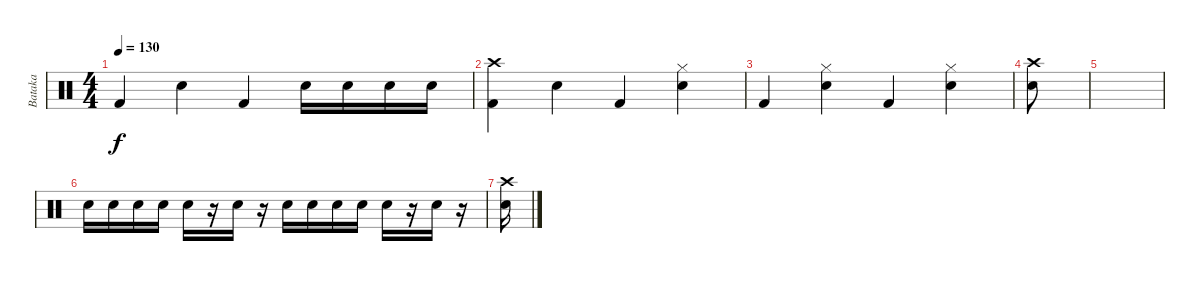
\track ("Bataka" "Bataka") {instrument percussion}
\staff {score}
\articulation defaults
\ts (4 4)
\tempo 130
\clef neutral
\ks c "Kick (hit) 2".4{dy f} "Snare (hit) 2".4 "Kick (hit) 2".4 "Snare (hit) 2".16 "Snare (hit) 2".16 "Snare (hit) 2".16 "Snare (hit) 2".16
|
("Crash high (hit)" "Kick (hit) 2").4 "Snare (hit) 2".4 "Kick (hit) 2".4 ("Hi-Hat (closed)" "Snare (hit) 2").4 |
"Kick (hit) 2".4 ("Hi-Hat (closed)" "Snare (hit) 2").4 "Kick (hit) 2".4 ("Hi-Hat (closed)" "Snare (hit) 2").4 |
("Snare (hit) 2" "Crash high (hit)").8 |
|
"Electric Snare (hit)".16 "Electric Snare (hit)".16 "Electric Snare (hit)".16 "Electric Snare (hit)".16 "Electric Snare (hit)".16 r.16 "Electric Snare (hit)".16 r.16 "Electric Snare (hit)".16 "Electric Snare (hit)".16 "Electric Snare (hit)".16 "Electric Snare (hit)".16 "Electric Snare (hit)".16 r.16 "Electric Snare (hit)".16 r.16 |
("Snare (hit) 2" "Crash high (hit)").16
